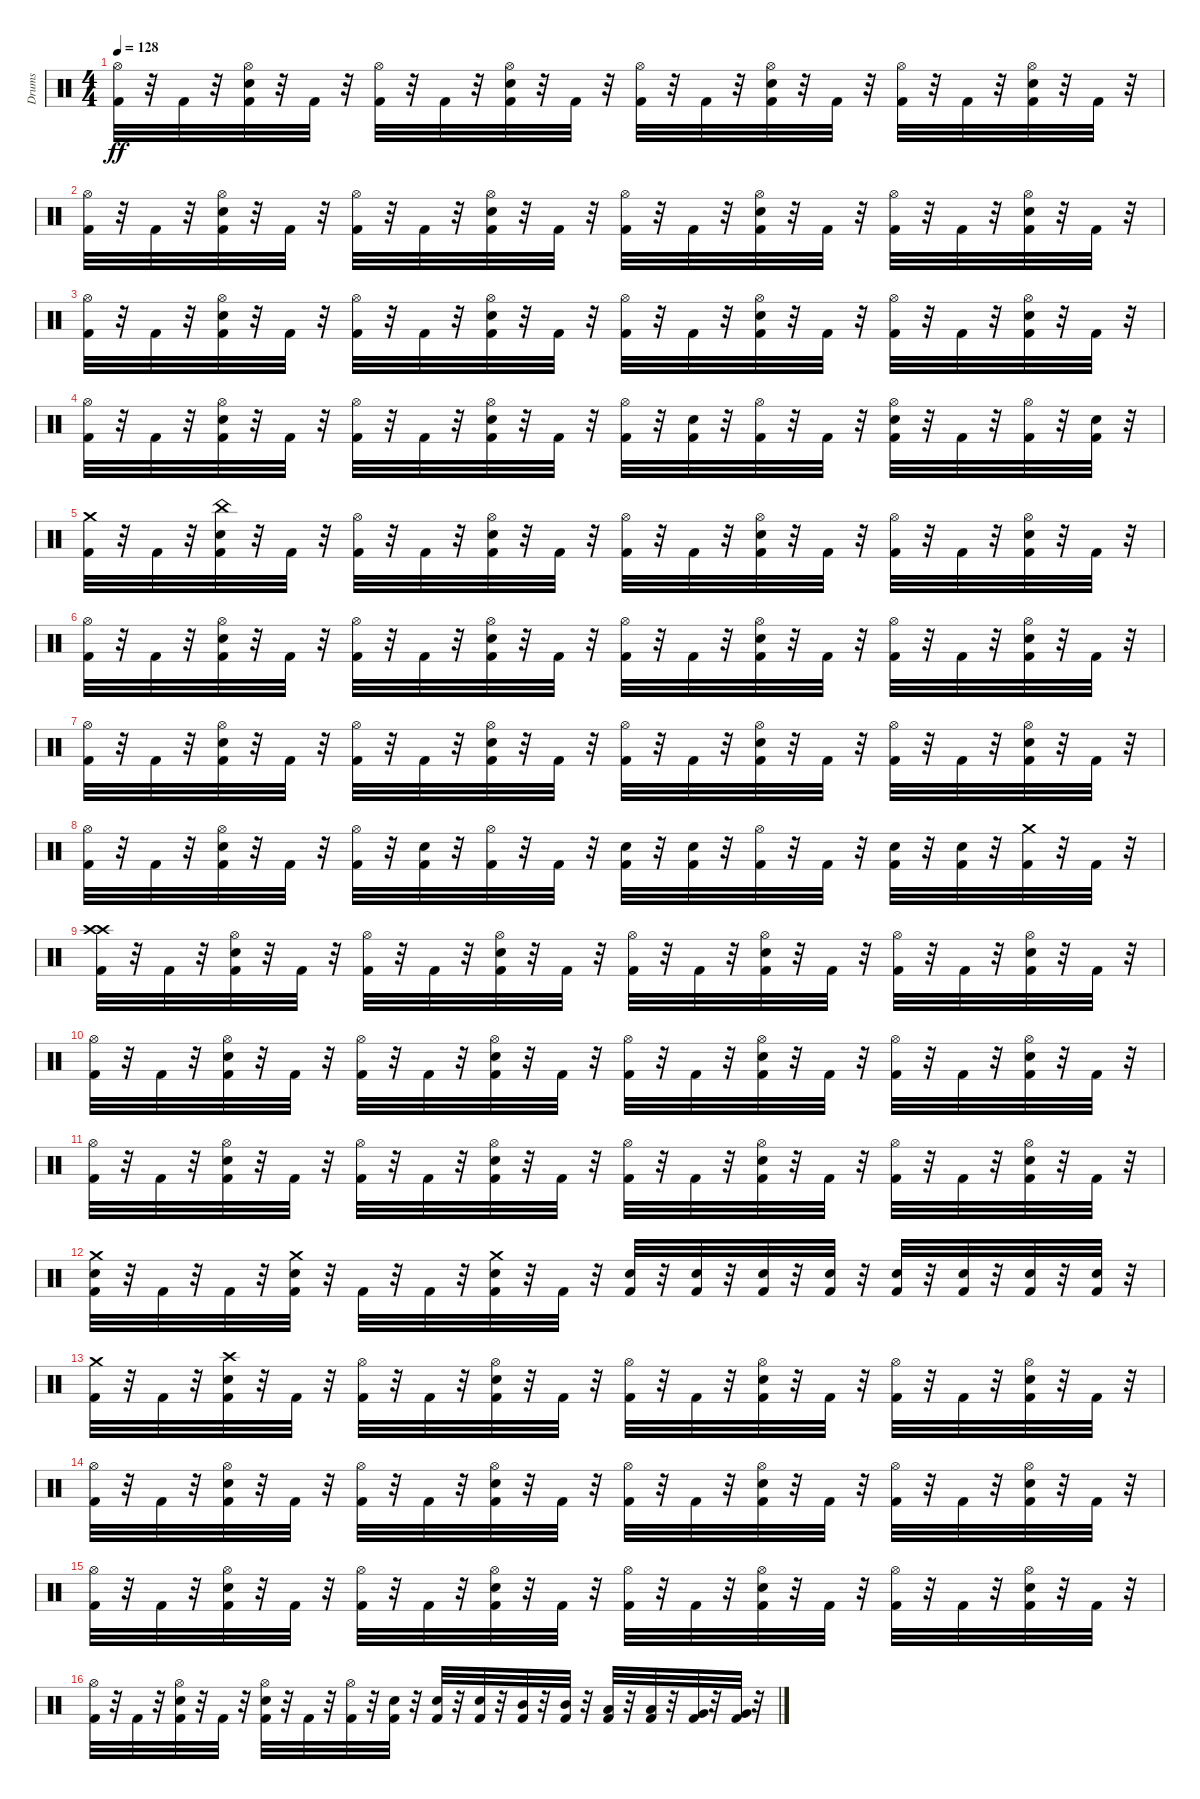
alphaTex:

\track ("Drums" "Drums") {instrument percussion}
\staff {score}
\articulation defaults
\ts (4 4)
\tempo 128
\clef neutral
\ks c
("Hi-Hat (open)" "Kick (hit) 2").32{dy ff} r.32 "Kick (hit) 2".32 r.32 ("Kick (hit) 2" "Hi-Hat (open)" "Snare (hit) 2").32 r.32 "Kick (hit) 2".32 r.32 ("Hi-Hat (open)" "Kick (hit) 2").32 r.32 "Kick (hit) 2".32 r.32 ("Kick (hit) 2" "Hi-Hat (open)" "Snare (hit) 2").32 r.32 "Kick (hit) 2".32 r.32 ("Hi-Hat (open)" "Kick (hit) 2").32 r.32 "Kick (hit) 2".32 r.32 ("Kick (hit) 2" "Hi-Hat (open)" "Snare (hit) 2").32 r.32 "Kick (hit) 2".32 r.32 ("Hi-Hat (open)" "Kick (hit) 2").32 r.32 "Kick (hit) 2".32 r.32 ("Kick (hit) 2" "Snare (hit) 2" "Hi-Hat (open)").32 r.32 "Kick (hit) 2".32 r.32 |
("Hi-Hat (open)" "Kick (hit) 2").32 r.32 "Kick (hit) 2".32 r.32 ("Hi-Hat (open)" "Snare (hit) 2" "Kick (hit) 2").32 r.32 "Kick (hit) 2".32 r.32 ("Kick (hit) 2" "Hi-Hat (open)").32 r.32 "Kick (hit) 2".32 r.32 ("Hi-Hat (open)" "Kick (hit) 2" "Snare (hit) 2").32 r.32 "Kick (hit) 2".32 r.32 ("Kick (hit) 2" "Hi-Hat (open)").32 r.32 "Kick (hit) 2".32 r.32 ("Hi-Hat (open)" "Snare (hit) 2" "Kick (hit) 2").32 r.32 "Kick (hit) 2".32 r.32 ("Kick (hit) 2" "Hi-Hat (open)").32 r.32 "Kick (hit) 2".32 r.32 ("Kick (hit) 2" "Snare (hit) 2" "Hi-Hat (open)").32 r.32 "Kick (hit) 2".32 r.32 |
("Hi-Hat (open)" "Kick (hit) 2").32 r.32 "Kick (hit) 2".32 r.32 ("Kick (hit) 2" "Hi-Hat (open)" "Snare (hit) 2").32 r.32 "Kick (hit) 2".32 r.32 ("Hi-Hat (open)" "Kick (hit) 2").32 r.32 "Kick (hit) 2".32 r.32 ("Kick (hit) 2" "Hi-Hat (open)" "Snare (hit) 2").32 r.32 "Kick (hit) 2".32 r.32 ("Hi-Hat (open)" "Kick (hit) 2").32 r.32 "Kick (hit) 2".32 r.32 ("Hi-Hat (open)" "Snare (hit) 2" "Kick (hit) 2").32 r.32 "Kick (hit) 2".32 r.32 ("Kick (hit) 2" "Hi-Hat (open)").32 r.32 "Kick (hit) 2".32 r.32 ("Hi-Hat (open)" "Snare (hit) 2" "Kick (hit) 2").32 r.32 "Kick (hit) 2".32 r.32 |
("Kick (hit) 2" "Hi-Hat (open)").32 r.32 "Kick (hit) 2".32 r.32 ("Hi-Hat (open)" "Kick (hit) 2" "Snare (hit) 2").32 r.32 "Kick (hit) 2".32 r.32 ("Kick (hit) 2" "Hi-Hat (open)").32 r.32 "Kick (hit) 2".32 r.32 ("Hi-Hat (open)" "Snare (hit) 2" "Kick (hit) 2").32 r.32 "Kick (hit) 2".32 r.32 ("Kick (hit) 2" "Hi-Hat (open)").32 r.32 ("Snare (hit) 2" "Kick (hit) 2").32 r.32 ("Hi-Hat (open)" "Kick (hit) 2").32 r.32 "Kick (hit) 2".32 r.32 ("Hi-Hat (open)" "Snare (hit) 2" "Kick (hit) 2").32 r.32 "Kick (hit) 2".32 r.32 ("Kick (hit) 2" "Hi-Hat (open)").32 r.32 ("Snare (hit) 2" "Kick (hit) 2").32 r.32 |
("Crash medium (hit)" "Kick (hit) 2").32 r.32 "Kick (hit) 2".32 r.32 ("China (hit)" "Kick (hit) 2" "Snare (hit) 2").32 r.32 "Kick (hit) 2".32 r.32 ("Hi-Hat (open)" "Kick (hit) 2").32 r.32 "Kick (hit) 2".32 r.32 ("Kick (hit) 2" "Hi-Hat (open)" "Snare (hit) 2").32 r.32 "Kick (hit) 2".32 r.32 ("Kick (hit) 2" "Hi-Hat (open)").32 r.32 "Kick (hit) 2".32 r.32 ("Hi-Hat (open)" "Snare (hit) 2" "Kick (hit) 2").32 r.32 "Kick (hit) 2".32 r.32 ("Kick (hit) 2" "Hi-Hat (open)").32 r.32 "Kick (hit) 2".32 r.32 ("Hi-Hat (open)" "Snare (hit) 2" "Kick (hit) 2").32 r.32 "Kick (hit) 2".32 r.32 |
("Hi-Hat (open)" "Kick (hit) 2").32 r.32 "Kick (hit) 2".32 r.32 ("Snare (hit) 2" "Hi-Hat (open)" "Kick (hit) 2").32 r.32 "Kick (hit) 2".32 r.32 ("Hi-Hat (open)" "Kick (hit) 2").32 r.32 "Kick (hit) 2".32 r.32 ("Snare (hit) 2" "Kick (hit) 2" "Hi-Hat (open)").32 r.32 "Kick (hit) 2".32 r.32 ("Kick (hit) 2" "Hi-Hat (open)").32 r.32 "Kick (hit) 2".32 r.32 ("Kick (hit) 2" "Snare (hit) 2" "Hi-Hat (open)").32 r.32 "Kick (hit) 2".32 r.32 ("Kick (hit) 2" "Hi-Hat (open)").32 r.32 "Kick (hit) 2".32 r.32 ("Hi-Hat (open)" "Kick (hit) 2" "Snare (hit) 2").32 r.32 "Kick (hit) 2".32 r.32 |
("Kick (hit) 2" "Hi-Hat (open)").32 r.32 "Kick (hit) 2".32 r.32 ("Hi-Hat (open)" "Kick (hit) 2" "Snare (hit) 2").32 r.32 "Kick (hit) 2".32 r.32 ("Kick (hit) 2" "Hi-Hat (open)").32 r.32 "Kick (hit) 2".32 r.32 ("Hi-Hat (open)" "Snare (hit) 2" "Kick (hit) 2").32 r.32 "Kick (hit) 2".32 r.32 ("Kick (hit) 2" "Hi-Hat (open)").32 r.32 "Kick (hit) 2".32 r.32 ("Kick (hit) 2" "Snare (hit) 2" "Hi-Hat (open)").32 r.32 "Kick (hit) 2".32 r.32 ("Hi-Hat (open)" "Kick (hit) 2").32 r.32 "Kick (hit) 2".32 r.32 ("Kick (hit) 2" "Hi-Hat (open)" "Snare (hit) 2").32 r.32 "Kick (hit) 2".32 r.32 |
("Hi-Hat (open)" "Kick (hit) 2").32 r.32 "Kick (hit) 2".32 r.32 ("Kick (hit) 2" "Hi-Hat (open)" "Snare (hit) 2").32 r.32 "Kick (hit) 2".32 r.32 ("Hi-Hat (open)" "Kick (hit) 2").32 r.32 ("Kick (hit) 2" "Snare (hit) 2").32 r.32 ("Hi-Hat (open)" "Kick (hit) 2").32 r.32 "Kick (hit) 2".32 r.32 ("Snare (hit) 2" "Kick (hit) 2").32 r.32 ("Kick (hit) 2" "Snare (hit) 2").32 r.32 ("Hi-Hat (open)" "Kick (hit) 2").32 r.32 "Kick (hit) 2".32 r.32 ("Kick (hit) 2" "Snare (hit) 2").32 r.32 ("Kick (hit) 2" "Snare (hit) 2").32 r.32 ("Crash medium (hit)" "Kick (hit) 2").32 r.32 "Kick (hit) 2".32 r.32 |
("Crash high (hit)" "Crash high (hit)" "Kick (hit) 2").32 r.32 "Kick (hit) 2".32 r.32 ("Kick (hit) 2" "Hi-Hat (open)" "Snare (hit) 2").32 r.32 "Kick (hit) 2".32 r.32 ("Hi-Hat (open)" "Kick (hit) 2").32 r.32 "Kick (hit) 2".32 r.32 ("Kick (hit) 2" "Hi-Hat (open)" "Snare (hit) 2").32 r.32 "Kick (hit) 2".32 r.32 ("Hi-Hat (open)" "Kick (hit) 2").32 r.32 "Kick (hit) 2".32 r.32 ("Kick (hit) 2" "Hi-Hat (open)" "Snare (hit) 2").32 r.32 "Kick (hit) 2".32 r.32 ("Hi-Hat (open)" "Kick (hit) 2").32 r.32 "Kick (hit) 2".32 r.32 ("Kick (hit) 2" "Snare (hit) 2" "Hi-Hat (open)").32 r.32 "Kick (hit) 2".32 r.32 |
("Hi-Hat (open)" "Kick (hit) 2").32 r.32 "Kick (hit) 2".32 r.32 ("Hi-Hat (open)" "Snare (hit) 2" "Kick (hit) 2").32 r.32 "Kick (hit) 2".32 r.32 ("Kick (hit) 2" "Hi-Hat (open)").32 r.32 "Kick (hit) 2".32 r.32 ("Hi-Hat (open)" "Kick (hit) 2" "Snare (hit) 2").32 r.32 "Kick (hit) 2".32 r.32 ("Kick (hit) 2" "Hi-Hat (open)").32 r.32 "Kick (hit) 2".32 r.32 ("Hi-Hat (open)" "Snare (hit) 2" "Kick (hit) 2").32 r.32 "Kick (hit) 2".32 r.32 ("Kick (hit) 2" "Hi-Hat (open)").32 r.32 "Kick (hit) 2".32 r.32 ("Kick (hit) 2" "Snare (hit) 2" "Hi-Hat (open)").32 r.32 "Kick (hit) 2".32 r.32 |
("Hi-Hat (open)" "Kick (hit) 2").32 r.32 "Kick (hit) 2".32 r.32 ("Kick (hit) 2" "Hi-Hat (open)" "Snare (hit) 2").32 r.32 "Kick (hit) 2".32 r.32 ("Hi-Hat (open)" "Kick (hit) 2").32 r.32 "Kick (hit) 2".32 r.32 ("Kick (hit) 2" "Hi-Hat (open)" "Snare (hit) 2").32 r.32 "Kick (hit) 2".32 r.32 ("Hi-Hat (open)" "Kick (hit) 2").32 r.32 "Kick (hit) 2".32 r.32 ("Hi-Hat (open)" "Snare (hit) 2" "Kick (hit) 2").32 r.32 "Kick (hit) 2".32 r.32 ("Kick (hit) 2" "Hi-Hat (open)").32 r.32 "Kick (hit) 2".32 r.32 ("Hi-Hat (open)" "Snare (hit) 2" "Kick (hit) 2").32 r.32 "Kick (hit) 2".32 r.32 |
("Snare (hit) 2" "Kick (hit) 2" "Crash medium (hit)").32 r.32 "Kick (hit) 2".32 r.32 "Kick (hit) 2".32 r.32 ("Kick (hit) 2" "Snare (hit) 2" "Crash medium (hit)").32 r.32 "Kick (hit) 2".32 r.32 "Kick (hit) 2".32 r.32 ("Crash medium (hit)" "Snare (hit) 2" "Kick (hit) 2").32 r.32 "Kick (hit) 2".32 r.32 ("Kick (hit) 2" "Snare (hit) 2").32 r.32 ("Snare (hit) 2" "Kick (hit) 2").32 r.32 ("Kick (hit) 2" "Snare (hit) 2").32 r.32 ("Snare (hit) 2" "Kick (hit) 2").32 r.32 ("Snare (hit) 2" "Kick (hit) 2").32 r.32 ("Snare (hit) 2" "Kick (hit) 2").32 r.32 ("Kick (hit) 2" "Snare (hit) 2").32 r.32 ("Snare (hit) 2" "Kick (hit) 2").32 r.32 |
("Crash medium (hit)" "Kick (hit) 2").32 r.32 "Kick (hit) 2".32 r.32 ("Crash high (hit)" "Kick (hit) 2" "Snare (hit) 2").32 r.32 "Kick (hit) 2".32 r.32 ("Hi-Hat (open)" "Kick (hit) 2").32 r.32 "Kick (hit) 2".32 r.32 ("Kick (hit) 2" "Hi-Hat (open)" "Snare (hit) 2").32 r.32 "Kick (hit) 2".32 r.32 ("Kick (hit) 2" "Hi-Hat (open)").32 r.32 "Kick (hit) 2".32 r.32 ("Hi-Hat (open)" "Snare (hit) 2" "Kick (hit) 2").32 r.32 "Kick (hit) 2".32 r.32 ("Kick (hit) 2" "Hi-Hat (open)").32 r.32 "Kick (hit) 2".32 r.32 ("Hi-Hat (open)" "Snare (hit) 2" "Kick (hit) 2").32 r.32 "Kick (hit) 2".32 r.32 |
("Hi-Hat (open)" "Kick (hit) 2").32 r.32 "Kick (hit) 2".32 r.32 ("Snare (hit) 2" "Hi-Hat (open)" "Kick (hit) 2").32 r.32 "Kick (hit) 2".32 r.32 ("Hi-Hat (open)" "Kick (hit) 2").32 r.32 "Kick (hit) 2".32 r.32 ("Snare (hit) 2" "Kick (hit) 2" "Hi-Hat (open)").32 r.32 "Kick (hit) 2".32 r.32 ("Kick (hit) 2" "Hi-Hat (open)").32 r.32 "Kick (hit) 2".32 r.32 ("Kick (hit) 2" "Snare (hit) 2" "Hi-Hat (open)").32 r.32 "Kick (hit) 2".32 r.32 ("Kick (hit) 2" "Hi-Hat (open)").32 r.32 "Kick (hit) 2".32 r.32 ("Hi-Hat (open)" "Kick (hit) 2" "Snare (hit) 2").32 r.32 "Kick (hit) 2".32 r.32 |
("Kick (hit) 2" "Hi-Hat (open)").32 r.32 "Kick (hit) 2".32 r.32 ("Hi-Hat (open)" "Kick (hit) 2" "Snare (hit) 2").32 r.32 "Kick (hit) 2".32 r.32 ("Kick (hit) 2" "Hi-Hat (open)").32 r.32 "Kick (hit) 2".32 r.32 ("Hi-Hat (open)" "Snare (hit) 2" "Kick (hit) 2").32 r.32 "Kick (hit) 2".32 r.32 ("Kick (hit) 2" "Hi-Hat (open)").32 r.32 "Kick (hit) 2".32 r.32 ("Kick (hit) 2" "Snare (hit) 2" "Hi-Hat (open)").32 r.32 "Kick (hit) 2".32 r.32 ("Hi-Hat (open)" "Kick (hit) 2").32 r.32 "Kick (hit) 2".32 r.32 ("Kick (hit) 2" "Hi-Hat (open)" "Snare (hit) 2").32 r.32 "Kick (hit) 2".32 r.32 |
("Hi-Hat (open)" "Kick (hit) 2").32 r.32 "Kick (hit) 2".32 r.32 ("Kick (hit) 2" "Hi-Hat (open)" "Snare (hit) 2").32 r.32 "Kick (hit) 2".32 r.32 ("Hi-Hat (open)" "Snare (hit) 2" "Kick (hit) 2").32 r.32 "Kick (hit) 2".32 r.32 ("Hi-Hat (open)" "Kick (hit) 2").32 r.32 ("Snare (hit) 2" "Kick (hit) 2").32 r.32 ("Snare (hit) 2" "Kick (hit) 2").32 r.32 ("Kick (hit) 2" "Snare (hit) 2").32 r.32 ("Mid Tom (hit)" "Kick (hit) 2").32 r.32 ("Kick (hit) 2" "Mid Tom (hit)").32 r.32 ("Kick (hit) 2" "Low Tom (hit)").32 r.32 ("Low Tom (hit)" "Kick (hit) 2").32 r.32 ("Kick (hit) 2" "Very Low Tom (hit)").32 r.32 ("Kick (hit) 2" "Very Low Tom (hit)").32 r.32
